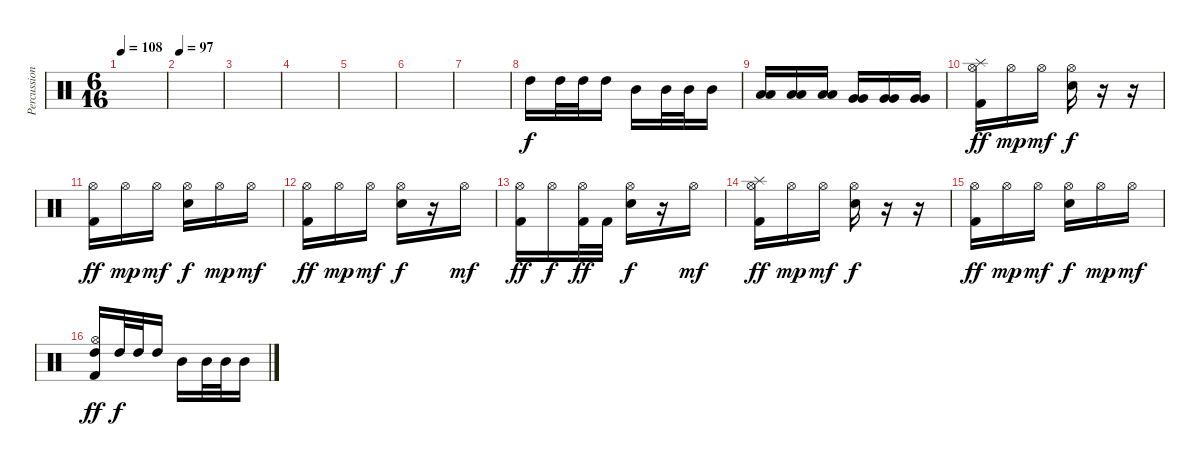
\track ("Percussion" "Percussion") {instrument percussion}
\staff {score}
\articulation defaults
\ts (6 16)
\tempo 108
\clef neutral
\ks c
|
\tempo 97
|
|
|
|
|
|
"High Tom (hit)".16{dy f} "High Tom (hit)".32 "High Tom (hit)".32 "High Tom (hit)".16 "Mid Tom (hit)".16 "Mid Tom (hit)".32 "Mid Tom (hit)".32 "Mid Tom (hit)".16 |
("Low Tom (hit)" "Low Tom (hit)").16 ("Low Tom (hit)" "Low Tom (hit)").16 ("Low Tom (hit)" "Low Tom (hit)").16 ("Very Low Tom (hit)" "Very Low Tom (hit)").16 ("Very Low Tom (hit)" "Very Low Tom (hit)").16 ("Very Low Tom (hit)" "Very Low Tom (hit)").16 |
("Splash (hit)" "Hi-Hat (open)" "Kick (hit) 2").16{dy ff} "Hi-Hat (open)".16{dy mp} "Hi-Hat (open)".16{dy mf} ("Hi-Hat (open)" "Electric Snare (hit)").16{dy f} r.16 r.16 |
("Hi-Hat (open)" "Kick (hit) 2").16{dy ff} "Hi-Hat (open)".16{dy mp} "Hi-Hat (open)".16{dy mf} ("Hi-Hat (open)" "Electric Snare (hit)").16{dy f} "Hi-Hat (open)".16{dy mp} "Hi-Hat (open)".16{dy mf} |
("Hi-Hat (open)" "Kick (hit) 2").16{dy ff} "Hi-Hat (open)".16{dy mp} "Hi-Hat (open)".16{dy mf} ("Hi-Hat (open)" "Electric Snare (hit)").16{dy f} r.16 "Hi-Hat (open)".16{dy mf} |
("Hi-Hat (open)" "Kick (hit) 2").16{dy ff} "Hi-Hat (open)".16{dy f} ("Hi-Hat (open)" "Kick (hit) 2").32{dy ff} "Kick (hit) 2".32 ("Hi-Hat (open)" "Electric Snare (hit)").16{dy f} r.16 "Hi-Hat (open)".16{dy mf} |
("Splash (hit)" "Hi-Hat (open)" "Kick (hit) 2").16{dy ff} "Hi-Hat (open)".16{dy mp} "Hi-Hat (open)".16{dy mf} ("Hi-Hat (open)" "Electric Snare (hit)").16{dy f} r.16 r.16 |
("Hi-Hat (open)" "Kick (hit) 2").16{dy ff} "Hi-Hat (open)".16{dy mp} "Hi-Hat (open)".16{dy mf} ("Hi-Hat (open)" "Electric Snare (hit)").16{dy f} "Hi-Hat (open)".16{dy mp} "Hi-Hat (open)".16{dy mf} |
("Hi-Hat (open)" "High Tom (hit)" "Kick (hit) 2").16{dy ff} "High Tom (hit)".32{dy f} "High Tom (hit)".32 "High Tom (hit)".16 "Mid Tom (hit)".16 "Mid Tom (hit)".32 "Mid Tom (hit)".32 "Mid Tom (hit)".16
